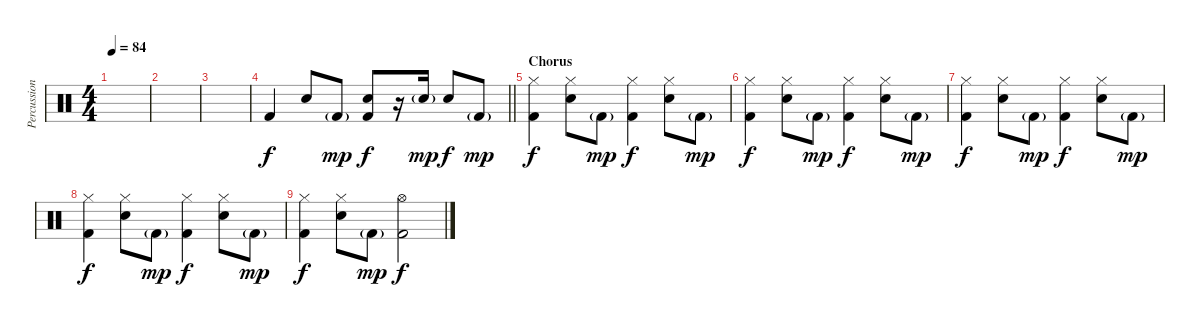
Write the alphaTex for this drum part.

\track ("Percussion" "Percussion") {instrument percussion}
\staff {score}
\articulation defaults
\ts (4 4)
\tempo 84
\clef neutral
\ks c
|
|
|
\barLineRight lightlight "Kick (hit) 2".4 "Snare (hit) 2".8 "Kick (hit) 2"{g}.8{dy mp}
("Snare (hit) 2" "Kick (hit) 2").8{dy f} r.16 "Snare (hit) 2"{g}.16{dy mp} "Snare (hit) 2".8{dy f} "Kick (hit) 2"{g}.8{dy mp} |
\section ("" "Chorus")
("Hi-Hat (closed)" "Kick (hit) 2").4{dy f} ("Hi-Hat (closed)" "Snare (hit) 2").8 "Kick (hit) 2"{g}.8{dy mp} ("Hi-Hat (closed)" "Kick (hit) 2").4{dy f} ("Hi-Hat (closed)" "Snare (hit) 2").8 "Kick (hit) 2"{g}.8{dy mp} |
("Hi-Hat (closed)" "Kick (hit) 2").4{dy f} ("Hi-Hat (closed)" "Snare (hit) 2").8 "Kick (hit) 2"{g}.8{dy mp} ("Hi-Hat (closed)" "Kick (hit) 2").4{dy f} ("Hi-Hat (closed)" "Snare (hit) 2").8 "Kick (hit) 2"{g}.8{dy mp} |
("Hi-Hat (closed)" "Kick (hit) 2").4{dy f} ("Hi-Hat (closed)" "Snare (hit) 2").8 "Kick (hit) 2"{g}.8{dy mp} ("Hi-Hat (closed)" "Kick (hit) 2").4{dy f} ("Hi-Hat (closed)" "Snare (hit) 2").8 "Kick (hit) 2"{g}.8{dy mp} |
("Hi-Hat (closed)" "Kick (hit) 2").4{dy f} ("Hi-Hat (closed)" "Snare (hit) 2").8 "Kick (hit) 2"{g}.8{dy mp} ("Hi-Hat (closed)" "Kick (hit) 2").4{dy f} ("Hi-Hat (closed)" "Snare (hit) 2").8 "Kick (hit) 2"{g}.8{dy mp} |
("Hi-Hat (closed)" "Kick (hit) 2").4{dy f} ("Hi-Hat (closed)" "Snare (hit) 2").8 "Kick (hit) 2"{g}.8{dy mp} ("Hi-Hat (open)" "Kick (hit) 2").2{dy f}
